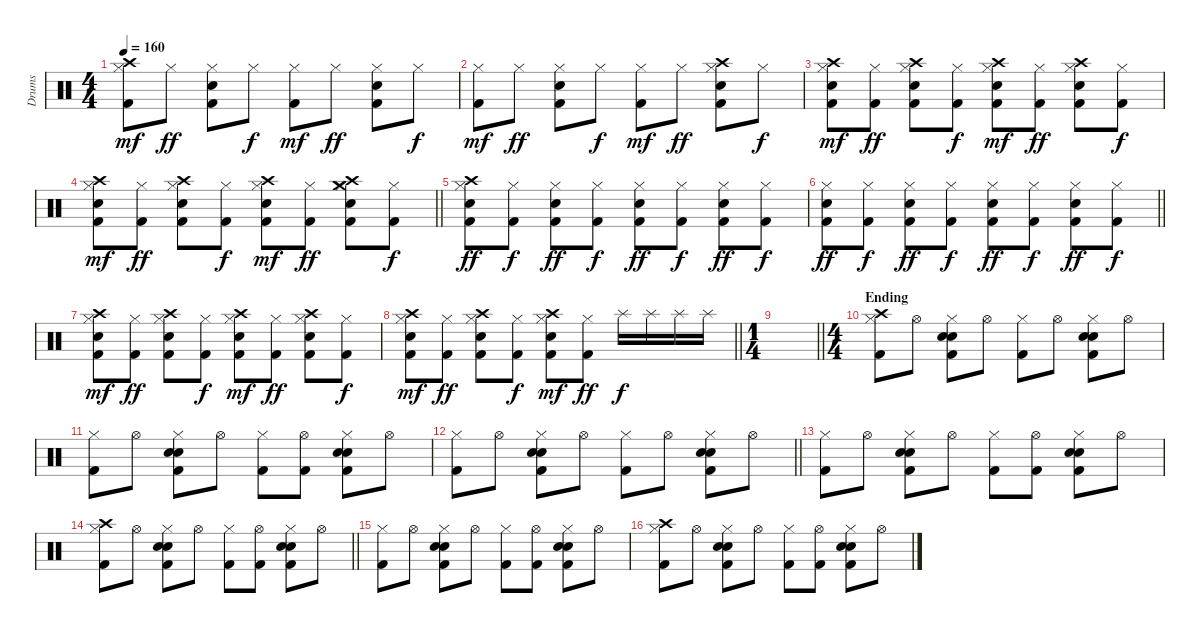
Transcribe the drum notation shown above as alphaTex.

\track ("Drums" "Drums") {instrument percussion}
\staff {score}
\articulation defaults
\ts (4 4)
\tempo 160
\clef neutral
\ks c
("Hi-Hat (closed)" "Crash high (hit)" "Kick (hit) 2").8{dy mf} "Hi-Hat (closed)".8{dy ff} ("Hi-Hat (closed)" "Electric Snare (hit)" "Kick (hit) 2").8 "Hi-Hat (closed)".8{dy f} ("Hi-Hat (closed)" "Kick (hit) 2").8{dy mf} "Hi-Hat (closed)".8{dy ff} ("Hi-Hat (closed)" "Electric Snare (hit)" "Kick (hit) 2").8 "Hi-Hat (closed)".8{dy f} |
("Hi-Hat (closed)" "Kick (hit) 2").8{dy mf} "Hi-Hat (closed)".8{dy ff} ("Hi-Hat (closed)" "Electric Snare (hit)" "Kick (hit) 2").8 "Hi-Hat (closed)".8{dy f} ("Hi-Hat (closed)" "Kick (hit) 2").8{dy mf} "Hi-Hat (closed)".8{dy ff} ("Hi-Hat (closed)" "Electric Snare (hit)" "Crash high (hit)" "Kick (hit) 2").8 "Hi-Hat (closed)".8{dy f} |
("Hi-Hat (closed)" "Electric Snare (hit)" "Crash high (hit)" "Kick (hit) 2").8{dy mf} ("Hi-Hat (closed)" "Kick (hit) 2").8{dy ff} ("Hi-Hat (closed)" "Electric Snare (hit)" "Crash high (hit)" "Kick (hit) 2").8 ("Hi-Hat (closed)" "Kick (hit) 2").8{dy f} ("Hi-Hat (closed)" "Electric Snare (hit)" "Crash high (hit)" "Kick (hit) 2").8{dy mf} ("Hi-Hat (closed)" "Kick (hit) 2").8{dy ff} ("Hi-Hat (closed)" "Electric Snare (hit)" "Crash high (hit)" "Kick (hit) 2").8 ("Hi-Hat (closed)" "Kick (hit) 2").8{dy f} |
\barLineRight lightlight
("Hi-Hat (closed)" "Electric Snare (hit)" "Crash high (hit)" "Kick (hit) 2").8{dy mf} ("Hi-Hat (closed)" "Kick (hit) 2").8{dy ff} ("Hi-Hat (closed)" "Electric Snare (hit)" "Crash high (hit)" "Kick (hit) 2").8 ("Hi-Hat (closed)" "Kick (hit) 2").8{dy f} ("Hi-Hat (closed)" "Electric Snare (hit)" "Crash high (hit)" "Kick (hit) 2").8{dy mf} ("Hi-Hat (closed)" "Kick (hit) 2").8{dy ff} ("Hi-Hat (closed)" "Electric Snare (hit)" "Crash high (hit)" "Crash medium (hit)" "Kick (hit) 2").8 ("Hi-Hat (closed)" "Kick (hit) 2").8{dy f} |
("Hi-Hat (closed)" "Electric Snare (hit)" "Crash high (hit)" "Kick (hit) 2").8{dy ff} ("Hi-Hat (closed)" "Kick (hit) 2").8{dy f} ("Hi-Hat (closed)" "Electric Snare (hit)" "Kick (hit) 2").8{dy ff} ("Hi-Hat (closed)" "Kick (hit) 2").8{dy f} ("Hi-Hat (closed)" "Electric Snare (hit)" "Kick (hit) 2").8{dy ff} ("Hi-Hat (closed)" "Kick (hit) 2").8{dy f} ("Hi-Hat (closed)" "Electric Snare (hit)" "Kick (hit) 2").8{dy ff} ("Hi-Hat (closed)" "Kick (hit) 2").8{dy f} |
\barLineRight lightlight
("Hi-Hat (closed)" "Electric Snare (hit)" "Kick (hit) 2").8{dy ff} ("Hi-Hat (closed)" "Kick (hit) 2").8{dy f} ("Hi-Hat (closed)" "Electric Snare (hit)" "Kick (hit) 2").8{dy ff} ("Hi-Hat (closed)" "Kick (hit) 2").8{dy f} ("Hi-Hat (closed)" "Electric Snare (hit)" "Kick (hit) 2").8{dy ff} ("Hi-Hat (closed)" "Kick (hit) 2").8{dy f} ("Hi-Hat (closed)" "Electric Snare (hit)" "Kick (hit) 2").8{dy ff} ("Hi-Hat (closed)" "Kick (hit) 2").8{dy f} |
("Hi-Hat (closed)" "Electric Snare (hit)" "Crash high (hit)" "Kick (hit) 2").8{dy mf} ("Hi-Hat (closed)" "Kick (hit) 2").8{dy ff} ("Hi-Hat (closed)" "Electric Snare (hit)" "Crash high (hit)" "Kick (hit) 2").8 ("Hi-Hat (closed)" "Kick (hit) 2").8{dy f} ("Hi-Hat (closed)" "Electric Snare (hit)" "Crash high (hit)" "Kick (hit) 2").8{dy mf} ("Hi-Hat (closed)" "Kick (hit) 2").8{dy ff} ("Hi-Hat (closed)" "Electric Snare (hit)" "Crash high (hit)" "Kick (hit) 2").8 ("Hi-Hat (closed)" "Kick (hit) 2").8{dy f} |
\barLineRight lightlight
("Hi-Hat (closed)" "Electric Snare (hit)" "Crash high (hit)" "Kick (hit) 2").8{dy mf} ("Hi-Hat (closed)" "Kick (hit) 2").8{dy ff} ("Hi-Hat (closed)" "Electric Snare (hit)" "Crash high (hit)" "Kick (hit) 2").8 ("Hi-Hat (closed)" "Kick (hit) 2").8{dy f} ("Hi-Hat (closed)" "Electric Snare (hit)" "Crash high (hit)" "Kick (hit) 2").8{dy mf} ("Hi-Hat (closed)" "Kick (hit) 2").8{dy ff} "Splash (hit)".16{dy f} "Splash (hit)".16 "Splash (hit)".16 "Splash (hit)".16 |
\ts (1 4)
\barLineRight lightlight
|
\ts (4 4)
\section ("" "Ending")
("Hi-Hat (closed)" "Crash high (hit)" "Kick (hit) 2").8 "Hi-Hat (open)".8 ("Hi-Hat (closed)" "Electric Snare (hit)" "Hand Clap (hit)" "Kick (hit) 2").8 "Hi-Hat (open)".8 ("Hi-Hat (closed)" "Kick (hit) 2").8 "Hi-Hat (open)".8 ("Hi-Hat (closed)" "Electric Snare (hit)" "Hand Clap (hit)" "Kick (hit) 2").8 "Hi-Hat (open)".8 |
("Hi-Hat (closed)" "Kick (hit) 2").8 "Hi-Hat (open)".8 ("Hi-Hat (closed)" "Electric Snare (hit)" "Hand Clap (hit)" "Kick (hit) 2").8 "Hi-Hat (open)".8 ("Hi-Hat (closed)" "Kick (hit) 2").8 ("Hi-Hat (open)" "Kick (hit) 2").8 ("Hi-Hat (closed)" "Electric Snare (hit)" "Hand Clap (hit)" "Kick (hit) 2").8 "Hi-Hat (open)".8 |
\barLineRight lightlight
("Hi-Hat (closed)" "Kick (hit) 2").8 "Hi-Hat (open)".8 ("Hi-Hat (closed)" "Electric Snare (hit)" "Hand Clap (hit)" "Kick (hit) 2").8 "Hi-Hat (open)".8 ("Hi-Hat (closed)" "Kick (hit) 2").8 "Hi-Hat (open)".8 ("Hi-Hat (closed)" "Electric Snare (hit)" "Hand Clap (hit)" "Kick (hit) 2").8 "Hi-Hat (open)".8 |
("Hi-Hat (closed)" "Kick (hit) 2").8 "Hi-Hat (open)".8 ("Hi-Hat (closed)" "Electric Snare (hit)" "Hand Clap (hit)" "Kick (hit) 2").8 "Hi-Hat (open)".8 ("Hi-Hat (closed)" "Kick (hit) 2").8 ("Hi-Hat (open)" "Kick (hit) 2").8 ("Hi-Hat (closed)" "Electric Snare (hit)" "Hand Clap (hit)" "Kick (hit) 2").8 "Hi-Hat (open)".8 |
\barLineRight lightlight
("Hi-Hat (closed)" "Crash high (hit)" "Kick (hit) 2").8 "Hi-Hat (open)".8 ("Hi-Hat (closed)" "Electric Snare (hit)" "Hand Clap (hit)" "Kick (hit) 2").8 "Hi-Hat (open)".8 ("Hi-Hat (closed)" "Kick (hit) 2").8 ("Hi-Hat (open)" "Kick (hit) 2").8 ("Hi-Hat (closed)" "Electric Snare (hit)" "Hand Clap (hit)" "Kick (hit) 2").8 "Hi-Hat (open)".8 |
("Hi-Hat (closed)" "Kick (hit) 2").8 "Hi-Hat (open)".8 ("Hi-Hat (closed)" "Electric Snare (hit)" "Hand Clap (hit)" "Kick (hit) 2").8 "Hi-Hat (open)".8 ("Hi-Hat (closed)" "Kick (hit) 2").8 ("Hi-Hat (open)" "Kick (hit) 2").8 ("Hi-Hat (closed)" "Electric Snare (hit)" "Hand Clap (hit)" "Kick (hit) 2").8 "Hi-Hat (open)".8 |
("Hi-Hat (closed)" "Crash high (hit)" "Kick (hit) 2").8 "Hi-Hat (open)".8 ("Hi-Hat (closed)" "Electric Snare (hit)" "Hand Clap (hit)" "Kick (hit) 2").8 "Hi-Hat (open)".8 ("Hi-Hat (closed)" "Kick (hit) 2").8 ("Hi-Hat (open)" "Kick (hit) 2").8 ("Hi-Hat (closed)" "Electric Snare (hit)" "Hand Clap (hit)" "Kick (hit) 2").8 "Hi-Hat (open)".8
